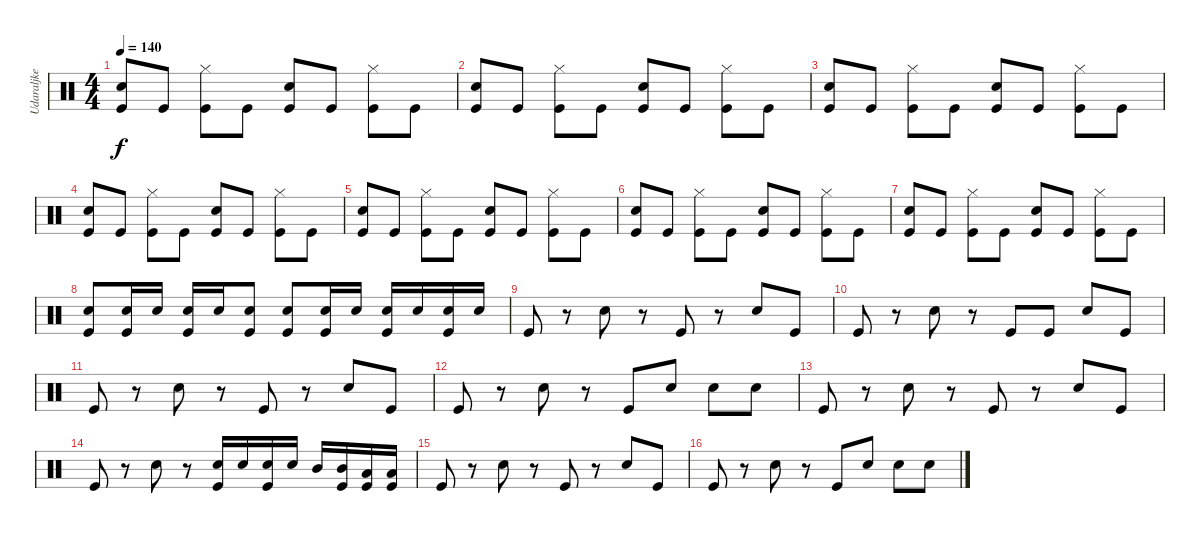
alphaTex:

\track ("Udaraljke" "Udaraljke") {instrument percussion}
\staff {score}
\articulation defaults
\ts (4 4)
\tempo 140
\clef neutral
\ks c
("Kick (hit)" "Snare (hit) 2").8{dy f} "Kick (hit)".8 ("Kick (hit)" "Hi-Hat (closed)").8 "Kick (hit)".8 ("Kick (hit)" "Snare (hit) 2").8 "Kick (hit)".8 ("Kick (hit)" "Hi-Hat (closed)").8 "Kick (hit)".8 |
("Kick (hit)" "Snare (hit) 2").8 "Kick (hit)".8 ("Kick (hit)" "Hi-Hat (closed)").8 "Kick (hit)".8 ("Kick (hit)" "Snare (hit) 2").8 "Kick (hit)".8 ("Kick (hit)" "Hi-Hat (closed)").8 "Kick (hit)".8 |
("Kick (hit)" "Snare (hit) 2").8 "Kick (hit)".8 ("Kick (hit)" "Hi-Hat (closed)").8 "Kick (hit)".8 ("Kick (hit)" "Snare (hit) 2").8 "Kick (hit)".8 ("Kick (hit)" "Hi-Hat (closed)").8 "Kick (hit)".8 |
("Kick (hit)" "Snare (hit) 2").8 "Kick (hit)".8 ("Kick (hit)" "Hi-Hat (closed)").8 "Kick (hit)".8 ("Kick (hit)" "Snare (hit) 2").8 "Kick (hit)".8 ("Kick (hit)" "Hi-Hat (closed)").8 "Kick (hit)".8 |
("Kick (hit)" "Snare (hit) 2").8 "Kick (hit)".8 ("Kick (hit)" "Hi-Hat (closed)").8 "Kick (hit)".8 ("Kick (hit)" "Snare (hit) 2").8 "Kick (hit)".8 ("Kick (hit)" "Hi-Hat (closed)").8 "Kick (hit)".8 |
("Kick (hit)" "Snare (hit) 2").8 "Kick (hit)".8 ("Kick (hit)" "Hi-Hat (closed)").8 "Kick (hit)".8 ("Kick (hit)" "Snare (hit) 2").8 "Kick (hit)".8 ("Kick (hit)" "Hi-Hat (closed)").8 "Kick (hit)".8 |
("Kick (hit)" "Snare (hit) 2").8 "Kick (hit)".8 ("Kick (hit)" "Hi-Hat (closed)").8 "Kick (hit)".8 ("Kick (hit)" "Snare (hit) 2").8 "Kick (hit)".8 ("Kick (hit)" "Hi-Hat (closed)").8 "Kick (hit)".8 |
("Kick (hit)" "Snare (hit) 2").8 ("Kick (hit)" "Snare (hit) 2").16 "Snare (hit) 2".16 ("Kick (hit)" "Snare (hit) 2").16 "Snare (hit) 2".16 ("Kick (hit)" "Snare (hit) 2").8 ("Kick (hit)" "Snare (hit) 2").8 ("Kick (hit)" "Snare (hit) 2").16 "Snare (hit) 2".16 ("Kick (hit)" "Snare (hit) 2").16 "Snare (hit) 2".16 ("Kick (hit)" "Snare (hit) 2").16 "Snare (hit) 2".16 |
"Kick (hit)".8 r.8 "Snare (hit) 2".8 r.8 "Kick (hit)".8 r.8 "Snare (hit) 2".8 "Kick (hit)".8 |
"Kick (hit)".8 r.8 "Snare (hit) 2".8 r.8 "Kick (hit)".8 "Kick (hit)".8 "Snare (hit) 2".8 "Kick (hit)".8 |
"Kick (hit)".8 r.8 "Snare (hit) 2".8 r.8 "Kick (hit)".8 r.8 "Snare (hit) 2".8 "Kick (hit)".8 |
"Kick (hit)".8 r.8 "Snare (hit) 2".8 r.8 "Kick (hit)".8 "Snare (hit) 2".8 "Snare (hit) 2".8 "Snare (hit) 2".8 |
"Kick (hit)".8 r.8 "Snare (hit) 2".8 r.8 "Kick (hit)".8 r.8 "Snare (hit) 2".8 "Kick (hit)".8 |
"Kick (hit)".8 r.8 "Snare (hit) 2".8 r.8 ("Kick (hit)" "Snare (hit) 2").16 "Snare (hit) 2".16 ("Kick (hit)" "Snare (hit) 2").16 "Snare (hit) 2".16 "Mid Tom (hit)".16 ("Kick (hit)" "Mid Tom (hit)").16 ("Kick (hit)" "Low Tom (hit)").16 ("Kick (hit)" "Low Tom (hit)").16 |
"Kick (hit)".8 r.8 "Snare (hit) 2".8 r.8 "Kick (hit)".8 r.8 "Snare (hit) 2".8 "Kick (hit)".8 |
"Kick (hit)".8 r.8 "Snare (hit) 2".8 r.8 "Kick (hit)".8 "Snare (hit) 2".8 "Snare (hit) 2".8 "Snare (hit) 2".8
